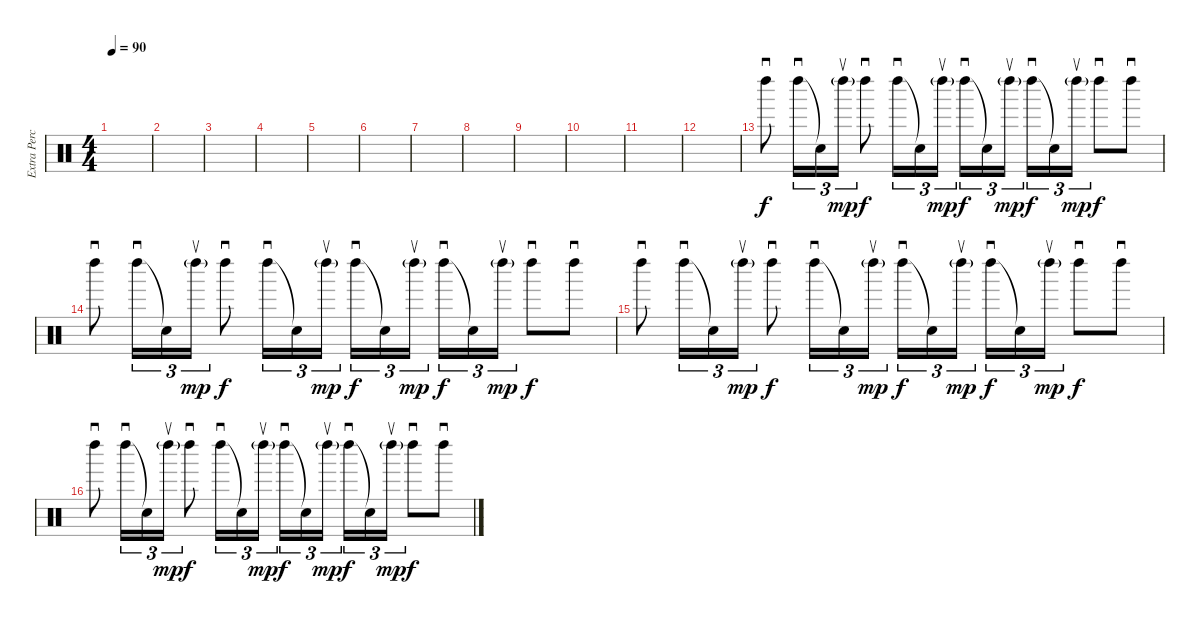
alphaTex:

\track ("Extra Percussion" "Extra Perc") {instrument percussion}
\staff {score}
\articulation defaults
\ts (4 4)
\tempo 90
\clef neutral
\ks c
|
|
|
|
|
|
|
|
|
|
|
|
"Left Maraca (hit)".8{sd} "Left Maraca (hit)".16{sd tu (3 2)} "Snare (hit)"{t}.16{tu (3 2)} "Left Maraca (hit)"{g}.16{su tu (3 2) dy mp} "Left Maraca (hit)".8{sd dy f} "Left Maraca (hit)".16{sd tu (3 2)} "Snare (hit)"{t}.16{tu (3 2)} "Left Maraca (hit)"{g}.16{su tu (3 2) dy mp} "Left Maraca (hit)".16{sd tu (3 2) dy f} "Snare (hit)"{t}.16{tu (3 2)} "Left Maraca (hit)"{g}.16{su tu (3 2) dy mp} "Left Maraca (hit)".16{sd tu (3 2) dy f} "Snare (hit)"{t}.16{tu (3 2)} "Left Maraca (hit)"{g}.16{su tu (3 2) dy mp} "Left Maraca (hit)".8{sd dy f} "Left Maraca (hit)".8{sd} |
"Left Maraca (hit)".8{sd} "Left Maraca (hit)".16{sd tu (3 2)} "Snare (hit)"{t}.16{tu (3 2)} "Left Maraca (hit)"{g}.16{su tu (3 2) dy mp} "Left Maraca (hit)".8{sd dy f} "Left Maraca (hit)".16{sd tu (3 2)} "Snare (hit)"{t}.16{tu (3 2)} "Left Maraca (hit)"{g}.16{su tu (3 2) dy mp} "Left Maraca (hit)".16{sd tu (3 2) dy f} "Snare (hit)"{t}.16{tu (3 2)} "Left Maraca (hit)"{g}.16{su tu (3 2) dy mp} "Left Maraca (hit)".16{sd tu (3 2) dy f} "Snare (hit)"{t}.16{tu (3 2)} "Left Maraca (hit)"{g}.16{su tu (3 2) dy mp} "Left Maraca (hit)".8{sd dy f} "Left Maraca (hit)".8{sd} |
"Left Maraca (hit)".8{sd} "Left Maraca (hit)".16{sd tu (3 2)} "Snare (hit)"{t}.16{tu (3 2)} "Left Maraca (hit)"{g}.16{su tu (3 2) dy mp} "Left Maraca (hit)".8{sd dy f} "Left Maraca (hit)".16{sd tu (3 2)} "Snare (hit)"{t}.16{tu (3 2)} "Left Maraca (hit)"{g}.16{su tu (3 2) dy mp} "Left Maraca (hit)".16{sd tu (3 2) dy f} "Snare (hit)"{t}.16{tu (3 2)} "Left Maraca (hit)"{g}.16{su tu (3 2) dy mp} "Left Maraca (hit)".16{sd tu (3 2) dy f} "Snare (hit)"{t}.16{tu (3 2)} "Left Maraca (hit)"{g}.16{su tu (3 2) dy mp} "Left Maraca (hit)".8{sd dy f} "Left Maraca (hit)".8{sd} |
"Left Maraca (hit)".8{sd} "Left Maraca (hit)".16{sd tu (3 2)} "Snare (hit)"{t}.16{tu (3 2)} "Left Maraca (hit)"{g}.16{su tu (3 2) dy mp} "Left Maraca (hit)".8{sd dy f} "Left Maraca (hit)".16{sd tu (3 2)} "Snare (hit)"{t}.16{tu (3 2)} "Left Maraca (hit)"{g}.16{su tu (3 2) dy mp} "Left Maraca (hit)".16{sd tu (3 2) dy f} "Snare (hit)"{t}.16{tu (3 2)} "Left Maraca (hit)"{g}.16{su tu (3 2) dy mp} "Left Maraca (hit)".16{sd tu (3 2) dy f} "Snare (hit)"{t}.16{tu (3 2)} "Left Maraca (hit)"{g}.16{su tu (3 2) dy mp} "Left Maraca (hit)".8{sd dy f} "Left Maraca (hit)".8{sd}
